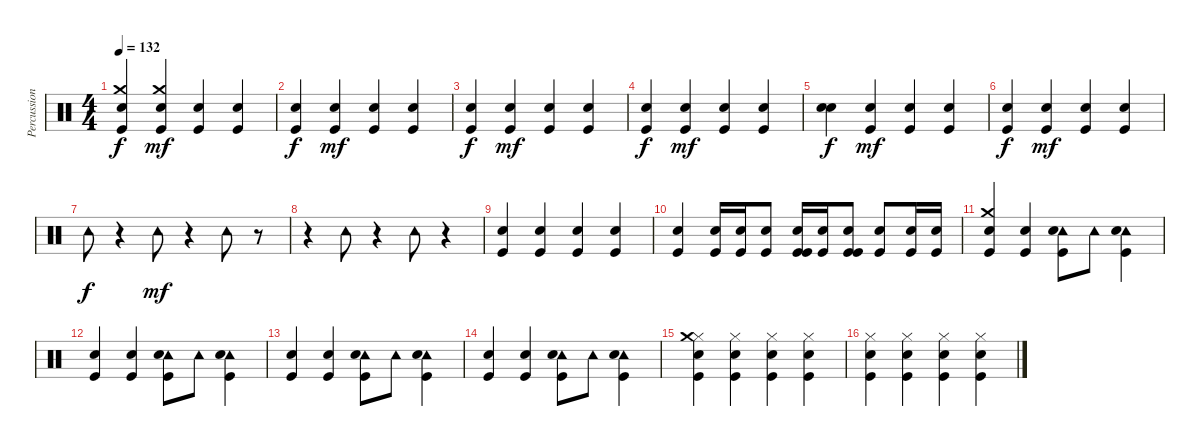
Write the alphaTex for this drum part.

\track ("Percussion" "Percussion") {instrument percussion}
\staff {score}
\articulation defaults
\ts (4 4)
\tempo 132
\clef neutral
\ks c
("Snare (hit) 2" "Crash medium (hit)" "Kick (hit)").4{dy f} ("Crash medium (hit)" "Kick (hit)" "Snare (hit) 2").4{dy mf} ("Kick (hit)" "Snare (hit) 2").4 ("Kick (hit)" "Snare (hit) 2").4 |
("Kick (hit)" "Snare (hit) 2").4{dy f} ("Kick (hit)" "Snare (hit) 2").4{dy mf} ("Kick (hit)" "Snare (hit) 2").4 ("Kick (hit)" "Snare (hit) 2").4 |
("Kick (hit)" "Snare (hit) 2").4{dy f} ("Kick (hit)" "Snare (hit) 2").4{dy mf} ("Snare (hit) 2" "Kick (hit)").4 ("Kick (hit)" "Snare (hit) 2").4 |
("Snare (hit) 2" "Kick (hit)").4{dy f} ("Kick (hit)" "Snare (hit) 2").4{dy mf} ("Snare (hit) 2" "Kick (hit)").4 ("Snare (hit) 2" "Kick (hit)").4 |
("Snare (hit) 2" "Snare (hit) 2").4{dy f} ("Snare (hit) 2" "Kick (hit)").4{dy mf} ("Snare (hit) 2" "Kick (hit)").4 ("Snare (hit) 2" "Kick (hit)").4 |
("Snare (hit) 2" "Kick (hit)").4{dy f} ("Kick (hit)" "Snare (hit) 2").4{dy mf} ("Kick (hit)" "Snare (hit) 2").4 ("Kick (hit)" "Snare (hit) 2").4 |
"Tambourine (hit)".8{dy f} r.4 "Tambourine (hit)".8{dy mf} r.4 "Tambourine (hit)".8 r.8 |
r.4 "Tambourine (hit)".8 r.4 "Tambourine (hit)".8 r.4 |
("Snare (hit) 2" "Kick (hit)").4 ("Snare (hit) 2" "Kick (hit)").4 ("Snare (hit) 2" "Kick (hit)").4 ("Kick (hit)" "Snare (hit) 2").4 |
("Kick (hit)" "Snare (hit) 2").4 ("Kick (hit)" "Snare (hit) 2").16 ("Kick (hit)" "Snare (hit) 2").16 ("Kick (hit)" "Snare (hit) 2").8 ("Kick (hit)" "Snare (hit) 2" "Kick (hit)").16 ("Kick (hit)" "Snare (hit) 2").16 ("Kick (hit)" "Snare (hit) 2" "Kick (hit)").8 ("Kick (hit)" "Snare (hit) 2").8 ("Kick (hit)" "Snare (hit) 2").16 ("Kick (hit)" "Snare (hit) 2").16 |
("Crash medium (hit)" "Kick (hit)" "Snare (hit) 2").4 ("Snare (hit) 2" "Kick (hit)").4 ("Tambourine (hit)" "Snare (hit) 2" "Kick (hit)").8 "Tambourine (hit)".8 ("Tambourine (hit)" "Snare (hit) 2" "Kick (hit)").4 |
("Snare (hit) 2" "Kick (hit)").4 ("Kick (hit)" "Snare (hit) 2").4 ("Tambourine (hit)" "Kick (hit)" "Snare (hit) 2").8 "Tambourine (hit)".8 ("Tambourine (hit)" "Kick (hit)" "Snare (hit) 2").4 |
("Kick (hit)" "Snare (hit) 2").4 ("Kick (hit)" "Snare (hit) 2").4 ("Tambourine (hit)" "Kick (hit)" "Snare (hit) 2").8 "Tambourine (hit)".8 ("Tambourine (hit)" "Kick (hit)" "Snare (hit) 2").4 |
("Kick (hit)" "Snare (hit) 2").4 ("Snare (hit) 2" "Kick (hit)").4 ("Tambourine (hit)" "Kick (hit)" "Snare (hit) 2").8 "Tambourine (hit)".8 ("Tambourine (hit)" "Snare (hit) 2" "Kick (hit)").4 |
("Hi-Hat (closed)" "Snare (hit) 2" "Crash medium (hit)" "Kick (hit)").4 ("Hi-Hat (closed)" "Kick (hit)" "Snare (hit) 2").4 ("Hi-Hat (closed)" "Kick (hit)" "Snare (hit) 2").4 ("Hi-Hat (closed)" "Kick (hit)" "Snare (hit) 2").4 |
("Hi-Hat (closed)" "Kick (hit)" "Snare (hit) 2").4 ("Hi-Hat (closed)" "Kick (hit)" "Snare (hit) 2").4 ("Hi-Hat (closed)" "Kick (hit)" "Snare (hit) 2").4 ("Hi-Hat (closed)" "Kick (hit)" "Snare (hit) 2").4
